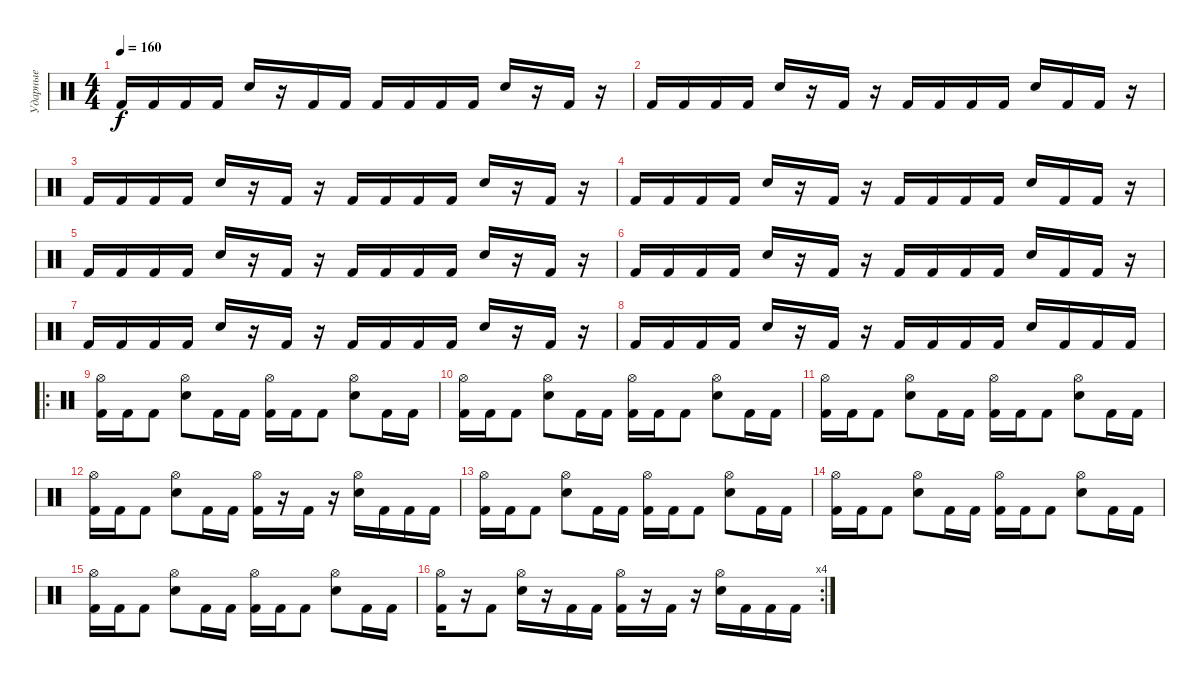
\track ("Ударные" "Ударные") {instrument percussion}
\staff {score}
\articulation defaults
\ts (4 4)
\tempo 160
\clef neutral
\ks c "Kick (hit) 2".16{dy f} "Kick (hit) 2".16 "Kick (hit) 2".16 "Kick (hit) 2".16 "Electric Snare (hit)".16
r.16 "Kick (hit) 2".16 "Kick (hit) 2".16 "Kick (hit) 2".16 "Kick (hit) 2".16 "Kick (hit) 2".16 "Kick (hit) 2".16 "Electric Snare (hit)".16 r.16 "Kick (hit) 2".16 r.16 |
"Kick (hit) 2".16 "Kick (hit) 2".16 "Kick (hit) 2".16 "Kick (hit) 2".16 "Electric Snare (hit)".16 r.16 "Kick (hit) 2".16 r.16 "Kick (hit) 2".16 "Kick (hit) 2".16 "Kick (hit) 2".16 "Kick (hit) 2".16 "Electric Snare (hit)".16 "Kick (hit) 2".16 "Kick (hit) 2".16 r.16 |
"Kick (hit) 2".16 "Kick (hit) 2".16 "Kick (hit) 2".16 "Kick (hit) 2".16 "Electric Snare (hit)".16 r.16 "Kick (hit) 2".16 r.16 "Kick (hit) 2".16 "Kick (hit) 2".16 "Kick (hit) 2".16 "Kick (hit) 2".16 "Electric Snare (hit)".16 r.16 "Kick (hit) 2".16 r.16 |
"Kick (hit) 2".16 "Kick (hit) 2".16 "Kick (hit) 2".16 "Kick (hit) 2".16 "Electric Snare (hit)".16 r.16 "Kick (hit) 2".16 r.16 "Kick (hit) 2".16 "Kick (hit) 2".16 "Kick (hit) 2".16 "Kick (hit) 2".16 "Electric Snare (hit)".16 "Kick (hit) 2".16 "Kick (hit) 2".16 r.16 |
"Kick (hit) 2".16 "Kick (hit) 2".16 "Kick (hit) 2".16 "Kick (hit) 2".16 "Electric Snare (hit)".16 r.16 "Kick (hit) 2".16 r.16 "Kick (hit) 2".16 "Kick (hit) 2".16 "Kick (hit) 2".16 "Kick (hit) 2".16 "Electric Snare (hit)".16 r.16 "Kick (hit) 2".16 r.16 |
"Kick (hit) 2".16 "Kick (hit) 2".16 "Kick (hit) 2".16 "Kick (hit) 2".16 "Electric Snare (hit)".16 r.16 "Kick (hit) 2".16 r.16 "Kick (hit) 2".16 "Kick (hit) 2".16 "Kick (hit) 2".16 "Kick (hit) 2".16 "Electric Snare (hit)".16 "Kick (hit) 2".16 "Kick (hit) 2".16 r.16 |
"Kick (hit) 2".16 "Kick (hit) 2".16 "Kick (hit) 2".16 "Kick (hit) 2".16 "Electric Snare (hit)".16 r.16 "Kick (hit) 2".16 r.16 "Kick (hit) 2".16 "Kick (hit) 2".16 "Kick (hit) 2".16 "Kick (hit) 2".16 "Electric Snare (hit)".16 r.16 "Kick (hit) 2".16 r.16 |
"Kick (hit) 2".16 "Kick (hit) 2".16 "Kick (hit) 2".16 "Kick (hit) 2".16 "Electric Snare (hit)".16 r.16 "Kick (hit) 2".16 r.16 "Kick (hit) 2".16 "Kick (hit) 2".16 "Kick (hit) 2".16 "Kick (hit) 2".16 "Electric Snare (hit)".16 "Kick (hit) 2".16 "Kick (hit) 2".16 "Kick (hit) 2".16 |
\ro
("Hi-Hat (open)" "Kick (hit) 2").16 "Kick (hit) 2".16 "Kick (hit) 2".8 ("Hi-Hat (open)" "Electric Snare (hit)").8 "Kick (hit) 2".16 "Kick (hit) 2".16 ("Hi-Hat (open)" "Kick (hit) 2").16 "Kick (hit) 2".16 "Kick (hit) 2".8 ("Hi-Hat (open)" "Electric Snare (hit)").8 "Kick (hit) 2".16 "Kick (hit) 2".16 |
("Hi-Hat (open)" "Kick (hit) 2").16 "Kick (hit) 2".16 "Kick (hit) 2".8 ("Hi-Hat (open)" "Electric Snare (hit)").8 "Kick (hit) 2".16 "Kick (hit) 2".16 ("Hi-Hat (open)" "Kick (hit) 2").16 "Kick (hit) 2".16 "Kick (hit) 2".8 ("Hi-Hat (open)" "Electric Snare (hit)").8 "Kick (hit) 2".16 "Kick (hit) 2".16 |
("Hi-Hat (open)" "Kick (hit) 2").16 "Kick (hit) 2".16 "Kick (hit) 2".8 ("Hi-Hat (open)" "Electric Snare (hit)").8 "Kick (hit) 2".16 "Kick (hit) 2".16 ("Hi-Hat (open)" "Kick (hit) 2").16 "Kick (hit) 2".16 "Kick (hit) 2".8 ("Hi-Hat (open)" "Electric Snare (hit)").8 "Kick (hit) 2".16 "Kick (hit) 2".16 |
("Hi-Hat (open)" "Kick (hit) 2").16 "Kick (hit) 2".16 "Kick (hit) 2".8 ("Hi-Hat (open)" "Electric Snare (hit)").8 "Kick (hit) 2".16 "Kick (hit) 2".16 ("Hi-Hat (open)" "Kick (hit) 2").16 r.16 "Kick (hit) 2".16 r.16 ("Hi-Hat (open)" "Electric Snare (hit)").16 "Kick (hit) 2".16 "Kick (hit) 2".16 "Kick (hit) 2".16 |
("Hi-Hat (open)" "Kick (hit) 2").16 "Kick (hit) 2".16 "Kick (hit) 2".8 ("Hi-Hat (open)" "Electric Snare (hit)").8 "Kick (hit) 2".16 "Kick (hit) 2".16 ("Hi-Hat (open)" "Kick (hit) 2").16 "Kick (hit) 2".16 "Kick (hit) 2".8 ("Hi-Hat (open)" "Electric Snare (hit)").8 "Kick (hit) 2".16 "Kick (hit) 2".16 |
("Hi-Hat (open)" "Kick (hit) 2").16 "Kick (hit) 2".16 "Kick (hit) 2".8 ("Hi-Hat (open)" "Electric Snare (hit)").8 "Kick (hit) 2".16 "Kick (hit) 2".16 ("Hi-Hat (open)" "Kick (hit) 2").16 "Kick (hit) 2".16 "Kick (hit) 2".8 ("Hi-Hat (open)" "Electric Snare (hit)").8 "Kick (hit) 2".16 "Kick (hit) 2".16 |
("Hi-Hat (open)" "Kick (hit) 2").16 "Kick (hit) 2".16 "Kick (hit) 2".8 ("Hi-Hat (open)" "Electric Snare (hit)").8 "Kick (hit) 2".16 "Kick (hit) 2".16 ("Hi-Hat (open)" "Kick (hit) 2").16 "Kick (hit) 2".16 "Kick (hit) 2".8 ("Hi-Hat (open)" "Electric Snare (hit)").8 "Kick (hit) 2".16 "Kick (hit) 2".16 |
\rc 4
("Hi-Hat (open)" "Kick (hit) 2").16 r.16 "Kick (hit) 2".8 ("Hi-Hat (open)" "Electric Snare (hit)").16 r.16 "Kick (hit) 2".16 "Kick (hit) 2".16 ("Hi-Hat (open)" "Kick (hit) 2").16 r.16 "Kick (hit) 2".16 r.16 ("Hi-Hat (open)" "Electric Snare (hit)").16 "Kick (hit) 2".16 "Kick (hit) 2".16 "Kick (hit) 2".16
